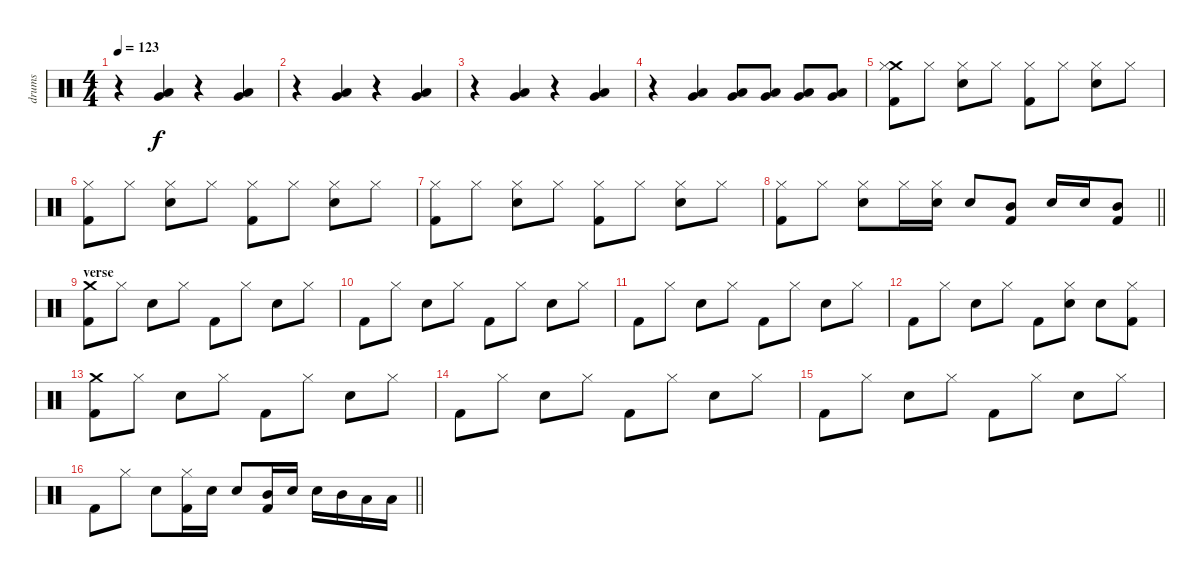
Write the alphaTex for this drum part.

\track ("drums" "drums") {instrument percussion}
\staff {score}
\articulation defaults
\ts (4 4)
\tempo 123
\clef neutral
\ks c
r.4{dy f} ("Very Low Tom (hit)" "Low Floor Tom (hit)").4 r.4 ("Very Low Tom (hit)" "Low Floor Tom (hit)").4 |
r.4 ("Very Low Tom (hit)" "Low Floor Tom (hit)").4 r.4 ("Very Low Tom (hit)" "Low Floor Tom (hit)").4 |
r.4 ("Very Low Tom (hit)" "Low Floor Tom (hit)").4 r.4 ("Very Low Tom (hit)" "Low Floor Tom (hit)").4 |
r.4 ("Very Low Tom (hit)" "Low Floor Tom (hit)").4 ("Very Low Tom (hit)" "Low Floor Tom (hit)").8 ("Very Low Tom (hit)" "Low Floor Tom (hit)").8 ("Very Low Tom (hit)" "Low Floor Tom (hit)").8 ("Very Low Tom (hit)" "Low Floor Tom (hit)").8 |
("Crash medium (hit)" "Hi-Hat (closed)" "Kick (hit) 2").8 "Hi-Hat (closed)".8 ("Hi-Hat (closed)" "Snare (hit) 2").8 "Hi-Hat (closed)".8 ("Hi-Hat (closed)" "Kick (hit) 2").8 "Hi-Hat (closed)".8 ("Hi-Hat (closed)" "Snare (hit) 2").8 "Hi-Hat (closed)".8 |
("Hi-Hat (closed)" "Kick (hit) 2").8 "Hi-Hat (closed)".8 ("Hi-Hat (closed)" "Snare (hit) 2").8 "Hi-Hat (closed)".8 ("Hi-Hat (closed)" "Kick (hit) 2").8 "Hi-Hat (closed)".8 ("Hi-Hat (closed)" "Snare (hit) 2").8 "Hi-Hat (closed)".8 |
("Hi-Hat (closed)" "Kick (hit) 2").8 "Hi-Hat (closed)".8 ("Hi-Hat (closed)" "Snare (hit) 2").8 "Hi-Hat (closed)".8 ("Hi-Hat (closed)" "Kick (hit) 2").8 "Hi-Hat (closed)".8 ("Hi-Hat (closed)" "Snare (hit) 2").8 "Hi-Hat (closed)".8 |
\barLineRight lightlight
("Hi-Hat (closed)" "Kick (hit) 2").8 "Hi-Hat (closed)".8 ("Hi-Hat (closed)" "Snare (hit) 2").8 "Hi-Hat (closed)".16 ("Hi-Hat (closed)" "Snare (hit) 2").16 "Snare (hit) 2".8 ("Mid Tom (hit)" "Kick (hit) 2").8 "Snare (hit) 2".16 "Snare (hit) 2".16 ("Mid Tom (hit)" "Kick (hit) 2").8 |
\section ("" "verse")
("Crash medium (hit)" "Kick (hit) 2").8 "Hi-Hat (closed)".8 "Snare (hit) 2".8 "Hi-Hat (closed)".8 "Kick (hit) 2".8 "Hi-Hat (closed)".8 "Snare (hit) 2".8 "Hi-Hat (closed)".8 |
"Kick (hit) 2".8 "Hi-Hat (closed)".8 "Snare (hit) 2".8 "Hi-Hat (closed)".8 "Kick (hit) 2".8 "Hi-Hat (closed)".8 "Snare (hit) 2".8 "Hi-Hat (closed)".8 |
"Kick (hit) 2".8 "Hi-Hat (closed)".8 "Snare (hit) 2".8 "Hi-Hat (closed)".8 "Kick (hit) 2".8 "Hi-Hat (closed)".8 "Snare (hit) 2".8 "Hi-Hat (closed)".8 |
"Kick (hit) 2".8 "Hi-Hat (closed)".8 "Snare (hit) 2".8 "Hi-Hat (closed)".8 "Kick (hit) 2".8 ("Hi-Hat (closed)" "Snare (hit) 2").8 "Snare (hit) 2".8 ("Hi-Hat (closed)" "Kick (hit) 2").8 |
("Crash medium (hit)" "Kick (hit) 2").8 "Hi-Hat (closed)".8 "Snare (hit) 2".8 "Hi-Hat (closed)".8 "Kick (hit) 2".8 "Hi-Hat (closed)".8 "Snare (hit) 2".8 "Hi-Hat (closed)".8 |
"Kick (hit) 2".8 "Hi-Hat (closed)".8 "Snare (hit) 2".8 "Hi-Hat (closed)".8 "Kick (hit) 2".8 "Hi-Hat (closed)".8 "Snare (hit) 2".8 "Hi-Hat (closed)".8 |
"Kick (hit) 2".8 "Hi-Hat (closed)".8 "Snare (hit) 2".8 "Hi-Hat (closed)".8 "Kick (hit) 2".8 "Hi-Hat (closed)".8 "Snare (hit) 2".8 "Hi-Hat (closed)".8 |
\barLineRight lightlight "Kick (hit) 2".8 "Hi-Hat (closed)".8 "Snare (hit) 2".8
("Hi-Hat (closed)" "Kick (hit) 2").16 "Snare (hit) 2".16 "Snare (hit) 2".8 ("Mid Tom (hit)" "Kick (hit) 2").16 "Snare (hit) 2".16 "Snare (hit) 2".16 "Mid Tom (hit)".16 "Low Tom (hit)".16 "Low Tom (hit)".16
